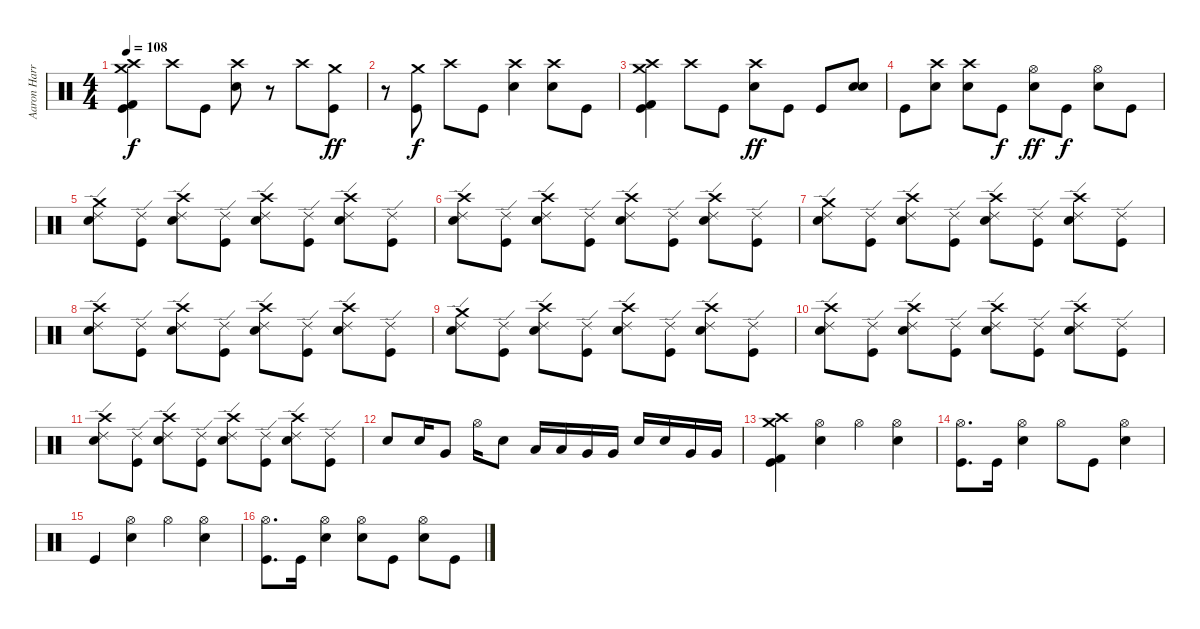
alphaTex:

\track ("Aaron Harris" "Aaron Harr") {instrument percussion}
\staff {score}
\articulation defaults
\ts (4 4)
\tempo 108
\clef neutral
\ks c
("Crash medium (hit)" "Crash high (hit)" "Kick (hit) 2" "Kick (hit)").4{dy f} "Crash high (hit)".8 "Kick (hit)".8 ("Crash high (hit)" "Electric Snare (hit)").8 r.8 "Crash high (hit)".8 ("Crash medium (hit)" "Kick (hit)").8{dy ff} |
r.8 ("Crash medium (hit)" "Kick (hit)").8{dy f} "Crash high (hit)".8 "Kick (hit)".8 ("Crash high (hit)" "Electric Snare (hit)").4 ("Crash high (hit)" "Electric Snare (hit)").8 "Kick (hit)".8 |
("Crash medium (hit)" "Crash high (hit)" "Kick (hit) 2" "Kick (hit)").4 "Crash high (hit)".8 "Kick (hit)".8 ("Crash high (hit)" "Electric Snare (hit)").8{dy ff} "Kick (hit)".8 "Kick (hit)".8 ("Electric Snare (hit)" "Electric Snare (hit)").8 |
"Kick (hit)".8 ("Crash high (hit)" "Electric Snare (hit)").8 ("Crash high (hit)" "Electric Snare (hit)").8 "Kick (hit)".8{dy f} ("Hi-Hat (open)" "Electric Snare (hit)").8{dy ff} "Kick (hit)".8{dy f} ("Hi-Hat (open)" "Electric Snare (hit)").8 "Kick (hit)".8 |
("Crash medium (hit)" "Ride (edge) 2" "Electric Snare (hit)").8 ("Ride (edge) 2" "Kick (hit)").8 ("Crash high (hit)" "Ride (edge) 2" "Electric Snare (hit)").8 ("Ride (edge) 2" "Kick (hit)").8 ("Crash high (hit)" "Ride (edge) 2" "Electric Snare (hit)").8 ("Ride (edge) 2" "Kick (hit)").8 ("Crash high (hit)" "Ride (edge) 2" "Electric Snare (hit)").8 ("Ride (edge) 2" "Kick (hit)").8 |
("Crash high (hit)" "Ride (edge) 2" "Electric Snare (hit)").8 ("Ride (edge) 2" "Kick (hit)").8 ("Crash high (hit)" "Ride (edge) 2" "Electric Snare (hit)").8 ("Ride (edge) 2" "Kick (hit)").8 ("Crash high (hit)" "Ride (edge) 2" "Electric Snare (hit)").8 ("Ride (edge) 2" "Kick (hit)").8 ("Crash high (hit)" "Ride (edge) 2" "Electric Snare (hit)").8 ("Ride (edge) 2" "Kick (hit)").8 |
("Crash medium (hit)" "Ride (edge) 2" "Electric Snare (hit)").8 ("Ride (edge) 2" "Kick (hit)").8 ("Crash high (hit)" "Ride (edge) 2" "Electric Snare (hit)").8 ("Ride (edge) 2" "Kick (hit)").8 ("Crash high (hit)" "Ride (edge) 2" "Electric Snare (hit)").8 ("Ride (edge) 2" "Kick (hit)").8 ("Crash high (hit)" "Ride (edge) 2" "Electric Snare (hit)").8 ("Ride (edge) 2" "Kick (hit)").8 |
("Crash high (hit)" "Ride (edge) 2" "Electric Snare (hit)").8 ("Ride (edge) 2" "Kick (hit)").8 ("Crash high (hit)" "Ride (edge) 2" "Electric Snare (hit)").8 ("Ride (edge) 2" "Kick (hit)").8 ("Crash high (hit)" "Ride (edge) 2" "Electric Snare (hit)").8 ("Ride (edge) 2" "Kick (hit)").8 ("Crash high (hit)" "Ride (edge) 2" "Electric Snare (hit)").8 ("Ride (edge) 2" "Kick (hit)").8 |
("Crash medium (hit)" "Ride (edge) 2" "Electric Snare (hit)").8 ("Ride (edge) 2" "Kick (hit)").8 ("Crash high (hit)" "Ride (edge) 2" "Electric Snare (hit)").8 ("Ride (edge) 2" "Kick (hit)").8 ("Crash high (hit)" "Ride (edge) 2" "Electric Snare (hit)").8 ("Ride (edge) 2" "Kick (hit)").8 ("Crash high (hit)" "Ride (edge) 2" "Electric Snare (hit)").8 ("Ride (edge) 2" "Kick (hit)").8 |
("Crash high (hit)" "Ride (edge) 2" "Electric Snare (hit)").8 ("Ride (edge) 2" "Kick (hit)").8 ("Crash high (hit)" "Ride (edge) 2" "Electric Snare (hit)").8 ("Ride (edge) 2" "Kick (hit)").8 ("Crash high (hit)" "Ride (edge) 2" "Electric Snare (hit)").8 ("Ride (edge) 2" "Kick (hit)").8 ("Crash high (hit)" "Ride (edge) 2" "Electric Snare (hit)").8 ("Ride (edge) 2" "Kick (hit)").8 |
("Crash high (hit)" "Ride (edge) 2" "Electric Snare (hit)").8 ("Ride (edge) 2" "Kick (hit)").8 ("Crash high (hit)" "Ride (edge) 2" "Electric Snare (hit)").8 ("Ride (edge) 2" "Kick (hit)").8 ("Crash high (hit)" "Ride (edge) 2" "Electric Snare (hit)").8 ("Ride (edge) 2" "Kick (hit)").8 ("Crash high (hit)" "Ride (edge) 2" "Electric Snare (hit)").8 ("Ride (edge) 2" "Kick (hit)").8 |
"Electric Snare (hit)".8 "Electric Snare (hit)".16 "Very Low Tom (hit)".8 "Hi-Hat (open)".16 "Electric Snare (hit)".8 "Low Tom (hit)".16 "Low Tom (hit)".16 "Very Low Tom (hit)".16 "Very Low Tom (hit)".16 "Electric Snare (hit)".16 "Electric Snare (hit)".16 "Very Low Tom (hit)".16 "Very Low Tom (hit)".16 |
("Crash medium (hit)" "Crash high (hit)" "Kick (hit) 2" "Kick (hit)").4 ("Hi-Hat (open)" "Electric Snare (hit)").4 "Hi-Hat (open)".4 ("Hi-Hat (open)" "Electric Snare (hit)").4 |
("Hi-Hat (open)" "Kick (hit)").8{d} "Kick (hit)".16 ("Hi-Hat (open)" "Electric Snare (hit)").4 "Hi-Hat (open)".8 "Kick (hit)".8 ("Hi-Hat (open)" "Electric Snare (hit)").4 |
"Kick (hit)".4 ("Hi-Hat (open)" "Electric Snare (hit)").4 "Hi-Hat (open)".4 ("Hi-Hat (open)" "Electric Snare (hit)").4 |
("Hi-Hat (open)" "Kick (hit)").8{d} "Kick (hit)".16 ("Hi-Hat (open)" "Electric Snare (hit)").4 ("Hi-Hat (open)" "Electric Snare (hit)").8 "Kick (hit)".8 ("Hi-Hat (open)" "Electric Snare (hit)").8 "Kick (hit)".8
